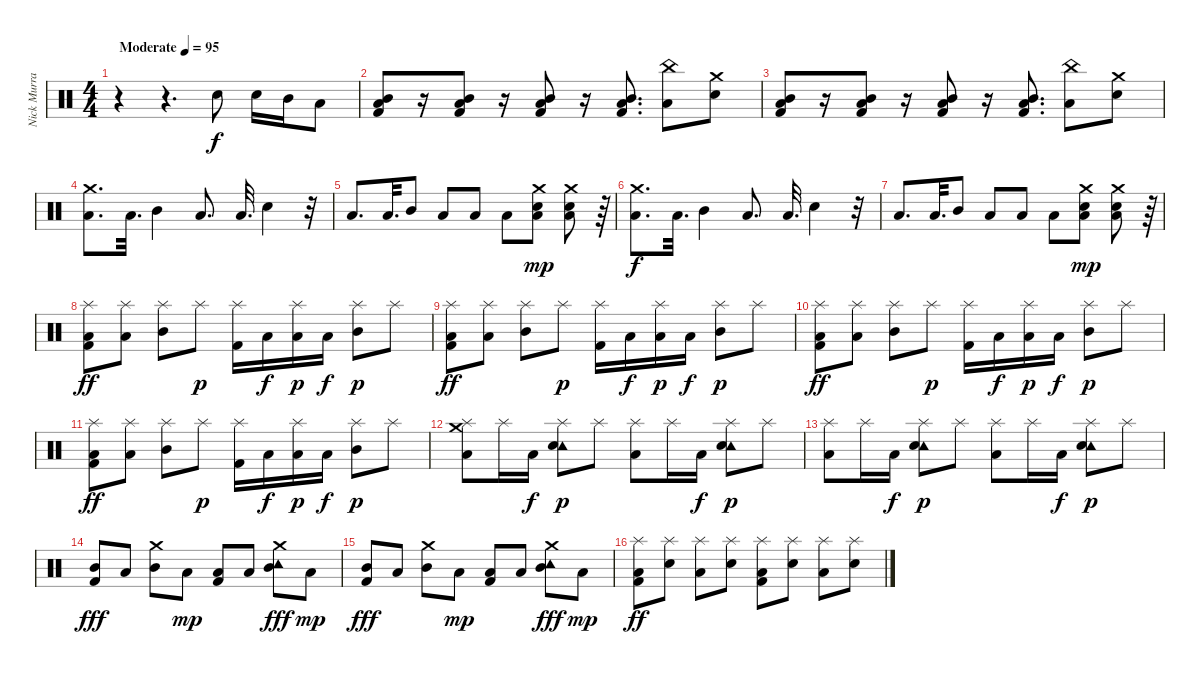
\track ("Nick Murray" "Nick Murra") {instrument percussion}
\staff {score}
\articulation defaults
\ts (4 4)
\tempo (95 "Moderate")
\clef neutral
\ks c
r.4{dy f} r.4{d} "Electric Snare (hit)".8 "Electric Snare (hit)".16 "Mid Tom (hit)".16 "Low Floor Tom (hit)".8 |
("Mid Tom (hit)" "Low Floor Tom (hit)" "Kick (hit) 2").8 r.16 ("Mid Tom (hit)" "Low Floor Tom (hit)" "Kick (hit) 2").8 r.16 ("Mid Tom (hit)" "Low Floor Tom (hit)" "Kick (hit) 2").8 r.16 ("Mid Tom (hit)" "Low Floor Tom (hit)" "Kick (hit) 2").8{d} ("China (hit)" "Low Floor Tom (hit)").8 ("Crash medium (hit)" "Electric Snare (hit)").8 |
("Mid Tom (hit)" "Low Floor Tom (hit)" "Kick (hit) 2").8 r.16 ("Mid Tom (hit)" "Low Floor Tom (hit)" "Kick (hit) 2").8 r.16 ("Mid Tom (hit)" "Low Floor Tom (hit)" "Kick (hit) 2").8 r.16 ("Mid Tom (hit)" "Low Floor Tom (hit)" "Kick (hit) 2").8{d} ("China (hit)" "Low Floor Tom (hit)").8 ("Crash medium (hit)" "Electric Snare (hit)").8 |
("Crash medium (hit)" "Low Floor Tom (hit)").8{d} "Low Floor Tom (hit)".32{d} "Mid Tom (hit)".4 "Low Floor Tom (hit)".8{d} "Low Floor Tom (hit)".32{d} "Electric Snare (hit)".4 r.32 |
"Low Floor Tom (hit)".8{d} "Low Floor Tom (hit)".32{d} "Mid Tom (hit)".8 "Low Floor Tom (hit)".8 "Low Floor Tom (hit)".8 "Low Floor Tom (hit)".8 ("Crash medium (hit)" "Electric Snare (hit)" "Low Floor Tom (hit)").8{dy mp} ("Crash medium (hit)" "Electric Snare (hit)" "Low Floor Tom (hit)").8 r.64 |
("Crash medium (hit)" "Low Floor Tom (hit)").8{d dy f} "Low Floor Tom (hit)".32{d} "Mid Tom (hit)".4 "Low Floor Tom (hit)".8{d} "Low Floor Tom (hit)".32{d} "Electric Snare (hit)".4 r.32 |
"Low Floor Tom (hit)".8{d} "Low Floor Tom (hit)".32{d} "Mid Tom (hit)".8 "Low Floor Tom (hit)".8 "Low Floor Tom (hit)".8 "Low Floor Tom (hit)".8 ("Crash medium (hit)" "Electric Snare (hit)" "Low Floor Tom (hit)").8{dy mp} ("Crash medium (hit)" "Electric Snare (hit)" "Low Floor Tom (hit)").8 r.64 |
("Splash (hit)" "Low Floor Tom (hit)" "Kick (hit) 2").8{dy ff} ("Splash (hit)" "Low Floor Tom (hit)").8 ("Splash (hit)" "Mid Tom (hit)").8 "Splash (hit)".8{dy p} ("Splash (hit)" "Kick (hit) 2").16 "Low Floor Tom (hit)".16{dy f} ("Splash (hit)" "Low Floor Tom (hit)").16{dy p} "Low Floor Tom (hit)".16{dy f} ("Splash (hit)" "Mid Tom (hit)").8{dy p} "Splash (hit)".8 |
("Splash (hit)" "Low Floor Tom (hit)" "Kick (hit) 2").8{dy ff} ("Splash (hit)" "Low Floor Tom (hit)").8 ("Splash (hit)" "Mid Tom (hit)").8 "Splash (hit)".8{dy p} ("Splash (hit)" "Kick (hit) 2").16 "Low Floor Tom (hit)".16{dy f} ("Splash (hit)" "Low Floor Tom (hit)").16{dy p} "Low Floor Tom (hit)".16{dy f} ("Splash (hit)" "Mid Tom (hit)").8{dy p} "Splash (hit)".8 |
("Splash (hit)" "Low Floor Tom (hit)" "Kick (hit) 2").8{dy ff} ("Splash (hit)" "Low Floor Tom (hit)").8 ("Splash (hit)" "Mid Tom (hit)").8 "Splash (hit)".8{dy p} ("Splash (hit)" "Kick (hit) 2").16 "Low Floor Tom (hit)".16{dy f} ("Splash (hit)" "Low Floor Tom (hit)").16{dy p} "Low Floor Tom (hit)".16{dy f} ("Splash (hit)" "Mid Tom (hit)").8{dy p} "Splash (hit)".8 |
("Splash (hit)" "Low Floor Tom (hit)" "Kick (hit) 2").8{dy ff} ("Splash (hit)" "Low Floor Tom (hit)").8 ("Splash (hit)" "Mid Tom (hit)").8 "Splash (hit)".8{dy p} ("Splash (hit)" "Kick (hit) 2").16 "Low Floor Tom (hit)".16{dy f} ("Splash (hit)" "Low Floor Tom (hit)").16{dy p} "Low Floor Tom (hit)".16{dy f} ("Splash (hit)" "Mid Tom (hit)").8{dy p} "Splash (hit)".8 |
("Crash medium (hit)" "Splash (hit)" "Low Floor Tom (hit)").8 "Splash (hit)".16 "Low Floor Tom (hit)".16{dy f} ("Tambourine (hit)" "Splash (hit)" "Electric Snare (hit)").8{dy p} "Splash (hit)".8 ("Splash (hit)" "Low Floor Tom (hit)").8 "Splash (hit)".16 "Low Floor Tom (hit)".16{dy f} ("Tambourine (hit)" "Splash (hit)" "Electric Snare (hit)").8{dy p} "Splash (hit)".8 |
("Splash (hit)" "Low Floor Tom (hit)").8 "Splash (hit)".16 "Low Floor Tom (hit)".16{dy f} ("Tambourine (hit)" "Splash (hit)" "Electric Snare (hit)").8{dy p} "Splash (hit)".8 ("Splash (hit)" "Low Floor Tom (hit)").8 "Splash (hit)".16 "Low Floor Tom (hit)".16{dy f} ("Tambourine (hit)" "Splash (hit)" "Electric Snare (hit)").8{dy p} "Splash (hit)".8 |
("Mid Tom (hit)" "Kick (hit) 2").8{dy fff} "Low Floor Tom (hit)".8 ("Crash medium (hit)" "Mid Tom (hit)").8 "Low Floor Tom (hit)".8{dy mp} ("Low Floor Tom (hit)" "Kick (hit) 2").8 "Low Floor Tom (hit)".8 ("Crash medium (hit)" "Tambourine (hit)" "Mid Tom (hit)").8{dy fff} "Low Floor Tom (hit)".8{dy mp} |
("Mid Tom (hit)" "Kick (hit) 2").8{dy fff} "Low Floor Tom (hit)".8 ("Crash medium (hit)" "Mid Tom (hit)").8 "Low Floor Tom (hit)".8{dy mp} ("Low Floor Tom (hit)" "Kick (hit) 2").8 "Low Floor Tom (hit)".8 ("Crash medium (hit)" "Tambourine (hit)" "Mid Tom (hit)").8{dy fff} "Low Floor Tom (hit)".8{dy mp} |
("Splash (hit)" "Low Floor Tom (hit)" "Kick (hit) 2").8{dy ff} ("Splash (hit)" "Electric Snare (hit)").8 ("Splash (hit)" "Low Floor Tom (hit)").8 ("Splash (hit)" "Electric Snare (hit)").8 ("Splash (hit)" "Low Floor Tom (hit)" "Kick (hit) 2").8 ("Splash (hit)" "Electric Snare (hit)").8 ("Splash (hit)" "Low Floor Tom (hit)").8 ("Splash (hit)" "Electric Snare (hit)").8
